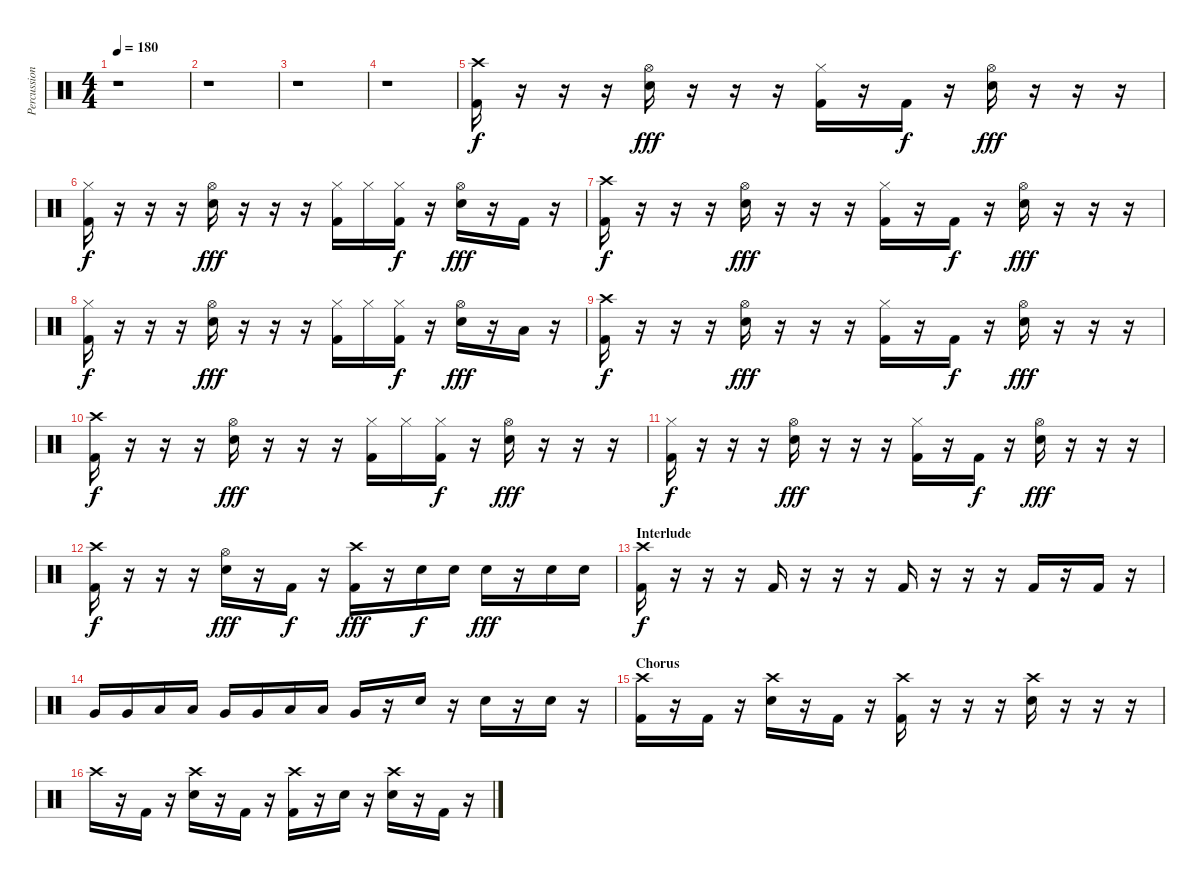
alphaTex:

\track ("Percussion" "Percussion") {instrument percussion}
\staff {score}
\articulation defaults
\ts (4 4)
\tempo 180
\clef neutral
\ks c
r.1{dy fff} |
r.1 |
r.1 |
r.1 |
("Crash high (hit)" "Kick (hit) 2").16{dy f} r.16 r.16 r.16 ("Hi-Hat (open)" "Electric Snare (hit)").16{dy fff} r.16 r.16 r.16 ("Hi-Hat (closed)" "Kick (hit) 2").16 r.16 "Kick (hit) 2".16{dy f} r.16 ("Hi-Hat (open)" "Electric Snare (hit)").16{dy fff} r.16 r.16 r.16 |
("Hi-Hat (closed)" "Kick (hit) 2").16{dy f} r.16 r.16 r.16 ("Hi-Hat (open)" "Electric Snare (hit)").16{dy fff} r.16 r.16 r.16 ("Hi-Hat (closed)" "Kick (hit) 2").16 "Hi-Hat (closed)".16 ("Hi-Hat (closed)" "Kick (hit) 2").16{dy f} r.16 ("Hi-Hat (open)" "Electric Snare (hit)").16{dy fff} r.16 "Kick (hit) 2".16 r.16 |
("Crash high (hit)" "Kick (hit) 2").16{dy f} r.16 r.16 r.16 ("Hi-Hat (open)" "Electric Snare (hit)").16{dy fff} r.16 r.16 r.16 ("Hi-Hat (closed)" "Kick (hit) 2").16 r.16 "Kick (hit) 2".16{dy f} r.16 ("Hi-Hat (open)" "Electric Snare (hit)").16{dy fff} r.16 r.16 r.16 |
("Hi-Hat (closed)" "Kick (hit) 2").16{dy f} r.16 r.16 r.16 ("Hi-Hat (open)" "Electric Snare (hit)").16{dy fff} r.16 r.16 r.16 ("Hi-Hat (closed)" "Kick (hit) 2").16 "Hi-Hat (closed)".16 ("Hi-Hat (closed)" "Kick (hit) 2").16{dy f} r.16 ("Hi-Hat (open)" "Electric Snare (hit)").16{dy fff} r.16 "Low Floor Tom (hit)".16 r.16 |
("Crash high (hit)" "Kick (hit) 2").16{dy f} r.16 r.16 r.16 ("Hi-Hat (open)" "Electric Snare (hit)").16{dy fff} r.16 r.16 r.16 ("Hi-Hat (closed)" "Kick (hit) 2").16 r.16 "Kick (hit) 2".16{dy f} r.16 ("Hi-Hat (open)" "Electric Snare (hit)").16{dy fff} r.16 r.16 r.16 |
("Crash high (hit)" "Kick (hit) 2").16{dy f} r.16 r.16 r.16 ("Hi-Hat (open)" "Electric Snare (hit)").16{dy fff} r.16 r.16 r.16 ("Hi-Hat (closed)" "Kick (hit) 2").16 "Hi-Hat (closed)".16 ("Hi-Hat (closed)" "Kick (hit) 2").16{dy f} r.16 ("Hi-Hat (open)" "Electric Snare (hit)").16{dy fff} r.16 r.16 r.16 |
("Hi-Hat (closed)" "Kick (hit) 2").16{dy f} r.16 r.16 r.16 ("Hi-Hat (open)" "Electric Snare (hit)").16{dy fff} r.16 r.16 r.16 ("Hi-Hat (closed)" "Kick (hit) 2").16 r.16 "Kick (hit) 2".16{dy f} r.16 ("Hi-Hat (open)" "Electric Snare (hit)").16{dy fff} r.16 r.16 r.16 |
("Crash high (hit)" "Kick (hit) 2").16{dy f} r.16 r.16 r.16 ("Hi-Hat (open)" "Electric Snare (hit)").16{dy fff} r.16 "Kick (hit) 2".16{dy f} r.16 ("Crash high (hit)" "Kick (hit) 2").16{dy fff} r.16 "Electric Snare (hit)".16{dy f} "Electric Snare (hit)".16 "Electric Snare (hit)".16{dy fff} r.16 "Electric Snare (hit)".16 "Electric Snare (hit)".16 |
\section ("" "Interlude")
("Crash high (hit)" "Kick (hit) 2").16{dy f} r.16 r.16 r.16 "Kick (hit) 2".16 r.16 r.16 r.16 "Kick (hit) 2".16 r.16 r.16 r.16 "Kick (hit) 2".16 r.16 "Kick (hit) 2".16 r.16 |
"Very Low Tom (hit)".16 "Very Low Tom (hit)".16 "Low Floor Tom (hit)".16 "Low Floor Tom (hit)".16 "Very Low Tom (hit)".16 "Very Low Tom (hit)".16 "Low Floor Tom (hit)".16 "Low Floor Tom (hit)".16 "Very Low Tom (hit)".16 r.16 "Electric Snare (hit)".16 r.16 "Electric Snare (hit)".16 r.16 "Electric Snare (hit)".16 r.16 |
\section ("" "Chorus")
("Crash high (hit)" "Kick (hit) 2").16 r.16 "Kick (hit) 2".16 r.16 ("Crash high (hit)" "Electric Snare (hit)").16 r.16 "Kick (hit) 2".16 r.16 ("Crash high (hit)" "Kick (hit) 2").16 r.16 r.16 r.16 ("Crash high (hit)" "Electric Snare (hit)").16 r.16 r.16 r.16 |
"Crash high (hit)".16 r.16 "Kick (hit) 2".16 r.16 ("Crash high (hit)" "Electric Snare (hit)").16 r.16 "Kick (hit) 2".16 r.16 ("Crash high (hit)" "Kick (hit) 2").16 r.16 "Electric Snare (hit)".16 r.16 ("Crash high (hit)" "Electric Snare (hit)").16 r.16 "Kick (hit) 2".16 r.16
